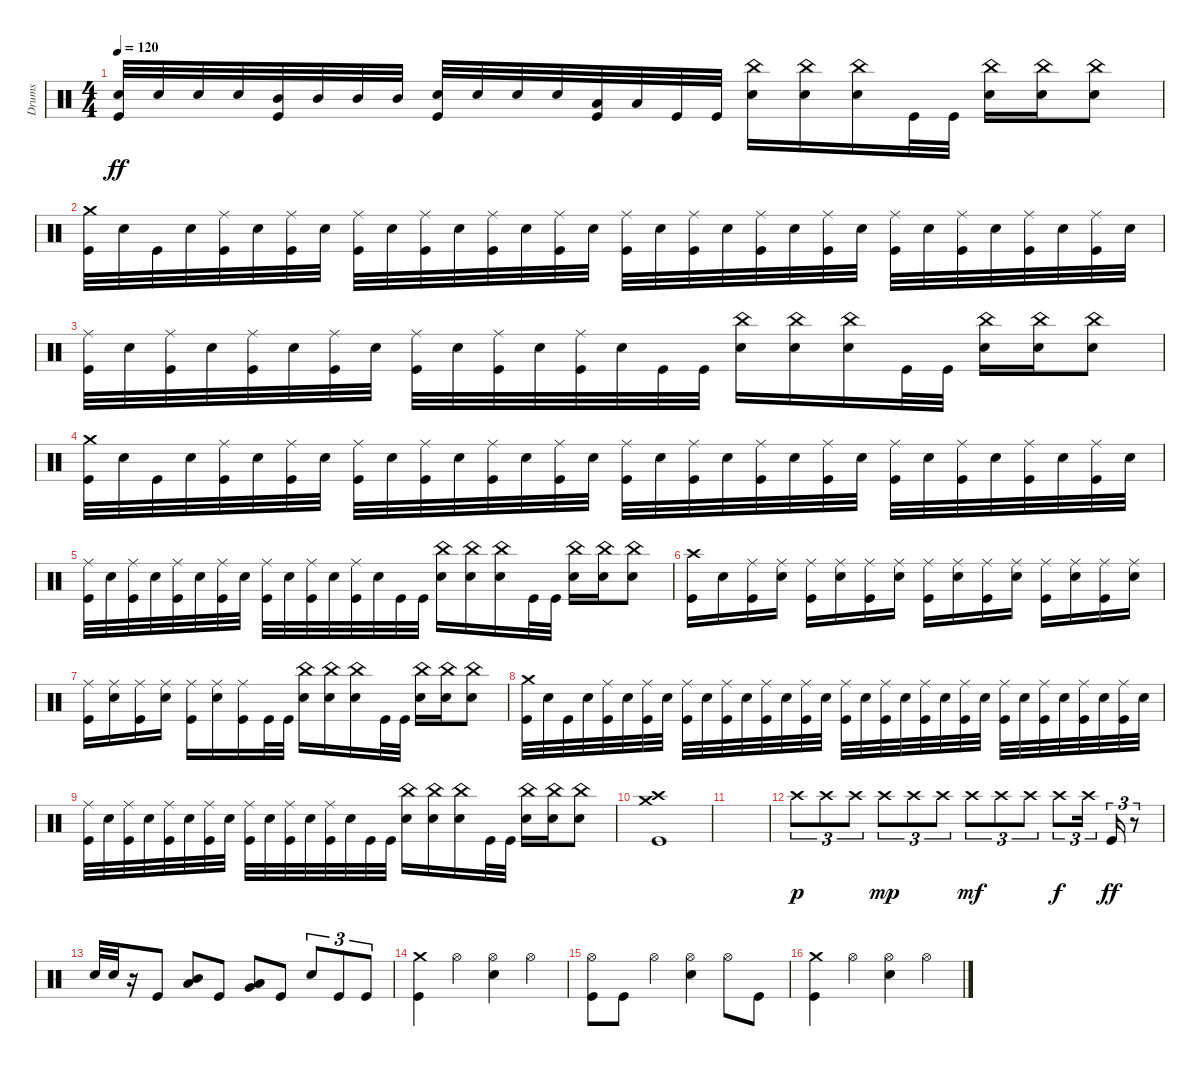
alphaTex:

\track ("Drums" "Drums") {instrument percussion}
\staff {score}
\articulation defaults
\ts (4 4)
\tempo 120
\clef neutral
\ks c
("Snare (hit) 2" "Kick (hit)").32{dy ff} "Snare (hit) 2".32 "Snare (hit) 2".32 "Snare (hit) 2".32 ("Kick (hit)" "Mid Tom (hit)").32 "Mid Tom (hit)".32 "Mid Tom (hit)".32 "Mid Tom (hit)".32 ("Snare (hit) 2" "Kick (hit)").32 "Snare (hit) 2".32 "Snare (hit) 2".32 "Snare (hit) 2".32 ("Low Tom (hit)" "Kick (hit)").32 "Low Tom (hit)".32 "Kick (hit)".32 "Kick (hit)".32 ("Snare (hit) 2" "China (hit)").16 ("Snare (hit) 2" "China (hit)").16 ("Snare (hit) 2" "China (hit)").16 "Kick (hit)".32 "Kick (hit)".32 ("Snare (hit) 2" "China (hit)").16 ("Snare (hit) 2" "China (hit)").16 ("Snare (hit) 2" "China (hit)").8 |
("Kick (hit)" "Crash medium (hit)").32 "Snare (hit) 2".32 "Kick (hit)".32 "Snare (hit) 2".32 ("Kick (hit)" "Ride (middle)").32 "Snare (hit) 2".32 ("Kick (hit)" "Ride (middle)").32 "Snare (hit) 2".32 ("Kick (hit)" "Ride (middle)").32 "Snare (hit) 2".32 ("Kick (hit)" "Ride (middle)").32 "Snare (hit) 2".32 ("Kick (hit)" "Ride (middle)").32 "Snare (hit) 2".32 ("Kick (hit)" "Ride (middle)").32 "Snare (hit) 2".32 ("Kick (hit)" "Ride (middle)").32 "Snare (hit) 2".32 ("Kick (hit)" "Ride (middle)").32 "Snare (hit) 2".32 ("Kick (hit)" "Ride (middle)").32 "Snare (hit) 2".32 ("Kick (hit)" "Ride (middle)").32 "Snare (hit) 2".32 ("Kick (hit)" "Ride (middle)").32 "Snare (hit) 2".32 ("Kick (hit)" "Ride (middle)").32 "Snare (hit) 2".32 ("Kick (hit)" "Ride (middle)").32 "Snare (hit) 2".32 ("Kick (hit)" "Ride (middle)").32 "Snare (hit) 2".32 |
("Kick (hit)" "Ride (middle)").32 "Snare (hit) 2".32 ("Kick (hit)" "Ride (middle)").32 "Snare (hit) 2".32 ("Kick (hit)" "Ride (middle)").32 "Snare (hit) 2".32 ("Kick (hit)" "Ride (middle)").32 "Snare (hit) 2".32 ("Kick (hit)" "Ride (middle)").32 "Snare (hit) 2".32 ("Kick (hit)" "Ride (middle)").32 "Snare (hit) 2".32 ("Kick (hit)" "Ride (middle)").32 "Snare (hit) 2".32 "Kick (hit)".32 "Kick (hit)".32 ("Snare (hit) 2" "China (hit)").16 ("Snare (hit) 2" "China (hit)").16 ("Snare (hit) 2" "China (hit)").16 "Kick (hit)".32 "Kick (hit)".32 ("Snare (hit) 2" "China (hit)").16 ("Snare (hit) 2" "China (hit)").16 ("Snare (hit) 2" "China (hit)").8 |
("Kick (hit)" "Crash medium (hit)").32 "Snare (hit) 2".32 "Kick (hit)".32 "Snare (hit) 2".32 ("Kick (hit)" "Ride (middle)").32 "Snare (hit) 2".32 ("Kick (hit)" "Ride (middle)").32 "Snare (hit) 2".32 ("Kick (hit)" "Ride (middle)").32 "Snare (hit) 2".32 ("Kick (hit)" "Ride (middle)").32 "Snare (hit) 2".32 ("Kick (hit)" "Ride (middle)").32 "Snare (hit) 2".32 ("Kick (hit)" "Ride (middle)").32 "Snare (hit) 2".32 ("Kick (hit)" "Ride (middle)").32 "Snare (hit) 2".32 ("Kick (hit)" "Ride (middle)").32 "Snare (hit) 2".32 ("Kick (hit)" "Ride (middle)").32 "Snare (hit) 2".32 ("Kick (hit)" "Ride (middle)").32 "Snare (hit) 2".32 ("Kick (hit)" "Ride (middle)").32 "Snare (hit) 2".32 ("Kick (hit)" "Ride (middle)").32 "Snare (hit) 2".32 ("Kick (hit)" "Ride (middle)").32 "Snare (hit) 2".32 ("Kick (hit)" "Ride (middle)").32 "Snare (hit) 2".32 |
("Kick (hit)" "Ride (middle)").32 "Snare (hit) 2".32 ("Kick (hit)" "Ride (middle)").32 "Snare (hit) 2".32 ("Kick (hit)" "Ride (middle)").32 "Snare (hit) 2".32 ("Kick (hit)" "Ride (middle)").32 "Snare (hit) 2".32 ("Kick (hit)" "Ride (middle)").32 "Snare (hit) 2".32 ("Kick (hit)" "Ride (middle)").32 "Snare (hit) 2".32 ("Kick (hit)" "Ride (middle)").32 "Snare (hit) 2".32 "Kick (hit)".32 "Kick (hit)".32 ("Snare (hit) 2" "China (hit)").16 ("Snare (hit) 2" "China (hit)").16 ("Snare (hit) 2" "China (hit)").16 "Kick (hit)".32 "Kick (hit)".32 ("Snare (hit) 2" "China (hit)").16 ("Snare (hit) 2" "China (hit)").16 ("Snare (hit) 2" "China (hit)").8 |
("Kick (hit)" "Crash high (hit)").16 "Snare (hit) 2".16 ("Kick (hit)" "Ride (middle)").16 ("Snare (hit) 2" "Ride (middle)").16 ("Kick (hit)" "Ride (middle)").16 ("Snare (hit) 2" "Ride (middle)").16 ("Kick (hit)" "Ride (middle)").16 ("Snare (hit) 2" "Ride (middle)").16 ("Kick (hit)" "Ride (middle)").16 ("Snare (hit) 2" "Ride (middle)").16 ("Kick (hit)" "Ride (middle)").16 ("Snare (hit) 2" "Ride (middle)").16 ("Kick (hit)" "Ride (middle)").16 ("Snare (hit) 2" "Ride (middle)").16 ("Kick (hit)" "Ride (middle)").16 ("Snare (hit) 2" "Ride (middle)").16 |
("Kick (hit)" "Ride (middle)").16 ("Snare (hit) 2" "Ride (middle)").16 ("Kick (hit)" "Ride (middle)").16 ("Snare (hit) 2" "Ride (middle)").16 ("Kick (hit)" "Ride (middle)").16 ("Snare (hit) 2" "Ride (middle)").16 ("Kick (hit)" "Ride (middle)").16 "Kick (hit)".32 "Kick (hit)".32 ("Snare (hit) 2" "China (hit)").16 ("Snare (hit) 2" "China (hit)").16 ("Snare (hit) 2" "China (hit)").16 "Kick (hit)".32 "Kick (hit)".32 ("Snare (hit) 2" "China (hit)").16 ("Snare (hit) 2" "China (hit)").16 ("Snare (hit) 2" "China (hit)").8 |
("Kick (hit)" "Crash medium (hit)").32 "Snare (hit) 2".32 "Kick (hit)".32 "Snare (hit) 2".32 ("Kick (hit)" "Ride (middle)").32 "Snare (hit) 2".32 ("Kick (hit)" "Ride (middle)").32 "Snare (hit) 2".32 ("Kick (hit)" "Ride (middle)").32 "Snare (hit) 2".32 ("Kick (hit)" "Ride (middle)").32 "Snare (hit) 2".32 ("Kick (hit)" "Ride (middle)").32 "Snare (hit) 2".32 ("Kick (hit)" "Ride (middle)").32 "Snare (hit) 2".32 ("Kick (hit)" "Ride (middle)").32 "Snare (hit) 2".32 ("Kick (hit)" "Ride (middle)").32 "Snare (hit) 2".32 ("Kick (hit)" "Ride (middle)").32 "Snare (hit) 2".32 ("Kick (hit)" "Ride (middle)").32 "Snare (hit) 2".32 ("Kick (hit)" "Ride (middle)").32 "Snare (hit) 2".32 ("Kick (hit)" "Ride (middle)").32 "Snare (hit) 2".32 ("Kick (hit)" "Ride (middle)").32 "Snare (hit) 2".32 ("Kick (hit)" "Ride (middle)").32 "Snare (hit) 2".32 |
("Kick (hit)" "Ride (middle)").32 "Snare (hit) 2".32 ("Kick (hit)" "Ride (middle)").32 "Snare (hit) 2".32 ("Kick (hit)" "Ride (middle)").32 "Snare (hit) 2".32 ("Kick (hit)" "Ride (middle)").32 "Snare (hit) 2".32 ("Kick (hit)" "Ride (middle)").32 "Snare (hit) 2".32 ("Kick (hit)" "Ride (middle)").32 "Snare (hit) 2".32 ("Kick (hit)" "Ride (middle)").32 "Snare (hit) 2".32 "Kick (hit)".32 "Kick (hit)".32 ("Snare (hit) 2" "China (hit)").16 ("Snare (hit) 2" "China (hit)").16 ("Snare (hit) 2" "China (hit)").16 "Kick (hit)".32 "Kick (hit)".32 ("Snare (hit) 2" "China (hit)").16 ("Snare (hit) 2" "China (hit)").16 ("Snare (hit) 2" "China (hit)").8 |
("Kick (hit)" "Crash medium (hit)" "Crash high (hit)").1 |
|
"Crash high (hit)".8{tu (3 2) dy p} "Crash high (hit)".8{tu (3 2)} "Crash high (hit)".8{tu (3 2)} "Crash high (hit)".8{tu (3 2) dy mp} "Crash high (hit)".8{tu (3 2)} "Crash high (hit)".8{tu (3 2)} "Crash high (hit)".8{tu (3 2) dy mf} "Crash high (hit)".8{tu (3 2)} "Crash high (hit)".8{tu (3 2)} "Crash high (hit)".8{tu (3 2) dy f} "Crash high (hit)".16{tu (3 2)} "Kick (hit)".16{tu (3 2) dy ff} r.8{tu (3 2)} |
"Snare (hit) 2".32 "Snare (hit) 2".32 r.16 "Kick (hit)".8 ("Low Tom (hit)" "Mid Tom (hit)").8 "Kick (hit)".8 ("Low Tom (hit)" "Very Low Tom (hit)").8 "Kick (hit)".8 "Snare (hit) 2".8{tu (3 2)} "Kick (hit)".8{tu (3 2)} "Kick (hit)".8{tu (3 2)} |
("Kick (hit)" "Crash medium (hit)").4 "Hi-Hat (open)".4 ("Hi-Hat (open)" "Snare (hit) 2").4 "Hi-Hat (open)".4 |
("Kick (hit)" "Hi-Hat (open)").8 "Kick (hit)".8 "Hi-Hat (open)".4 ("Hi-Hat (open)" "Snare (hit) 2").4 "Hi-Hat (open)".8 "Kick (hit)".8 |
("Kick (hit)" "Crash medium (hit)").4 "Hi-Hat (open)".4 ("Hi-Hat (open)" "Snare (hit) 2").4 "Hi-Hat (open)".4
